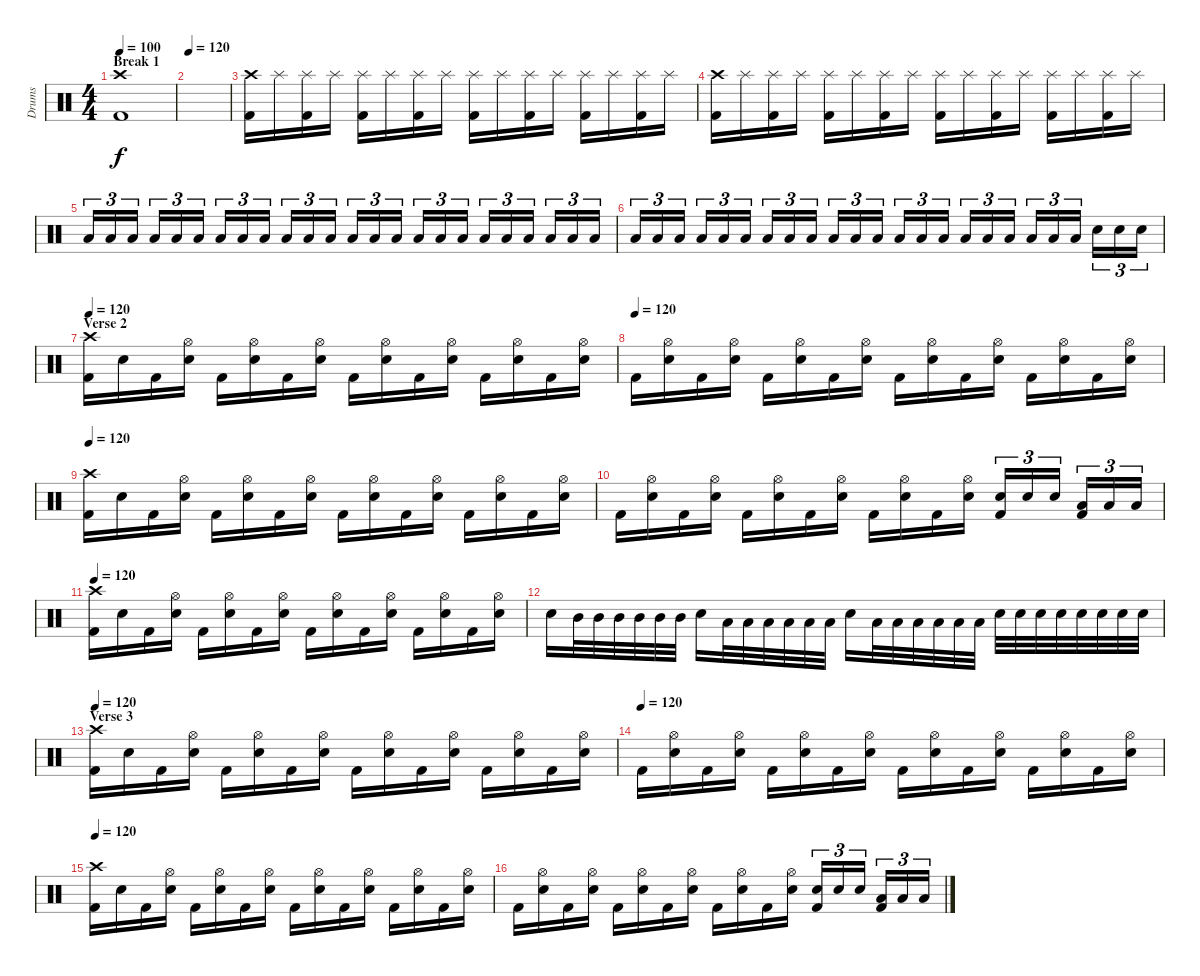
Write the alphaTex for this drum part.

\track ("Drums" "Drums") {instrument percussion}
\staff {score}
\articulation defaults
\ts (4 4)
\section ("" "Break 1")
\tempo 100
\clef neutral
\ks c
("Crash high (hit)" "Kick (hit) 2").1{dy f} |
\tempo 120
|
("Crash high (hit)" "Kick (hit) 2").16 "Splash (hit)".16 ("Splash (hit)" "Kick (hit) 2").16 "Splash (hit)".16 ("Splash (hit)" "Kick (hit) 2").16 "Splash (hit)".16 ("Splash (hit)" "Kick (hit) 2").16 "Splash (hit)".16 ("Splash (hit)" "Kick (hit) 2").16 "Splash (hit)".16 ("Splash (hit)" "Kick (hit) 2").16 "Splash (hit)".16 ("Splash (hit)" "Kick (hit) 2").16 "Splash (hit)".16 ("Splash (hit)" "Kick (hit) 2").16 "Splash (hit)".16 |
("Crash high (hit)" "Kick (hit) 2").16 "Splash (hit)".16 ("Splash (hit)" "Kick (hit) 2").16 "Splash (hit)".16 ("Splash (hit)" "Kick (hit) 2").16 "Splash (hit)".16 ("Splash (hit)" "Kick (hit) 2").16 "Splash (hit)".16 ("Splash (hit)" "Kick (hit) 2").16 "Splash (hit)".16 ("Splash (hit)" "Kick (hit) 2").16 "Splash (hit)".16 ("Splash (hit)" "Kick (hit) 2").16 "Splash (hit)".16 ("Splash (hit)" "Kick (hit) 2").16 "Splash (hit)".16 |
"Low Tom (hit)".16{tu (3 2)} "Low Tom (hit)".16{tu (3 2)} "Low Tom (hit)".16{tu (3 2)} "Low Floor Tom (hit)".16{tu (3 2)} "Low Floor Tom (hit)".16{tu (3 2)} "Low Floor Tom (hit)".16{tu (3 2)} "Low Tom (hit)".16{tu (3 2)} "Low Tom (hit)".16{tu (3 2)} "Low Tom (hit)".16{tu (3 2)} "Low Floor Tom (hit)".16{tu (3 2)} "Low Floor Tom (hit)".16{tu (3 2)} "Low Floor Tom (hit)".16{tu (3 2)} "Low Tom (hit)".16{tu (3 2)} "Low Tom (hit)".16{tu (3 2)} "Low Tom (hit)".16{tu (3 2)} "Low Floor Tom (hit)".16{tu (3 2)} "Low Floor Tom (hit)".16{tu (3 2)} "Low Floor Tom (hit)".16{tu (3 2)} "Low Tom (hit)".16{tu (3 2)} "Low Tom (hit)".16{tu (3 2)} "Low Tom (hit)".16{tu (3 2)} "Low Floor Tom (hit)".16{tu (3 2)} "Low Floor Tom (hit)".16{tu (3 2)} "Low Floor Tom (hit)".16{tu (3 2)} |
"Low Tom (hit)".16{tu (3 2)} "Low Tom (hit)".16{tu (3 2)} "Low Tom (hit)".16{tu (3 2)} "Low Floor Tom (hit)".16{tu (3 2)} "Low Floor Tom (hit)".16{tu (3 2)} "Low Floor Tom (hit)".16{tu (3 2)} "Low Tom (hit)".16{tu (3 2)} "Low Tom (hit)".16{tu (3 2)} "Low Tom (hit)".16{tu (3 2)} "Low Floor Tom (hit)".16{tu (3 2)} "Low Floor Tom (hit)".16{tu (3 2)} "Low Floor Tom (hit)".16{tu (3 2)} "Low Tom (hit)".16{tu (3 2)} "Low Tom (hit)".16{tu (3 2)} "Low Tom (hit)".16{tu (3 2)} "Low Floor Tom (hit)".16{tu (3 2)} "Low Floor Tom (hit)".16{tu (3 2)} "Low Floor Tom (hit)".16{tu (3 2)} "Low Tom (hit)".16{tu (3 2)} "Low Tom (hit)".16{tu (3 2)} "Low Tom (hit)".16{tu (3 2)} "Electric Snare (hit)".16{tu (3 2)} "Electric Snare (hit)".16{tu (3 2)} "Electric Snare (hit)".16{tu (3 2)} |
\section ("" "Verse 2")
\tempo 120
("Crash high (hit)" "Kick (hit) 2").16 "Electric Snare (hit)".16 "Kick (hit) 2".16 ("Hi-Hat (open)" "Electric Snare (hit)").16 "Kick (hit) 2".16 ("Hi-Hat (open)" "Electric Snare (hit)").16 "Kick (hit) 2".16 ("Hi-Hat (open)" "Electric Snare (hit)").16 "Kick (hit) 2".16 ("Hi-Hat (open)" "Electric Snare (hit)").16 "Kick (hit) 2".16 ("Hi-Hat (open)" "Electric Snare (hit)").16 "Kick (hit) 2".16 ("Hi-Hat (open)" "Electric Snare (hit)").16 "Kick (hit) 2".16 ("Hi-Hat (open)" "Electric Snare (hit)").16 |
\tempo (120)
"Kick (hit) 2".16 ("Hi-Hat (open)" "Electric Snare (hit)").16 "Kick (hit) 2".16 ("Hi-Hat (open)" "Electric Snare (hit)").16 "Kick (hit) 2".16 ("Hi-Hat (open)" "Electric Snare (hit)").16 "Kick (hit) 2".16 ("Hi-Hat (open)" "Electric Snare (hit)").16 "Kick (hit) 2".16 ("Hi-Hat (open)" "Electric Snare (hit)").16 "Kick (hit) 2".16 ("Hi-Hat (open)" "Electric Snare (hit)").16 "Kick (hit) 2".16 ("Hi-Hat (open)" "Electric Snare (hit)").16 "Kick (hit) 2".16 ("Hi-Hat (open)" "Electric Snare (hit)").16 |
\tempo 120
("Crash high (hit)" "Kick (hit) 2").16 "Electric Snare (hit)".16 "Kick (hit) 2".16 ("Hi-Hat (open)" "Electric Snare (hit)").16 "Kick (hit) 2".16 ("Hi-Hat (open)" "Electric Snare (hit)").16 "Kick (hit) 2".16 ("Hi-Hat (open)" "Electric Snare (hit)").16 "Kick (hit) 2".16 ("Hi-Hat (open)" "Electric Snare (hit)").16 "Kick (hit) 2".16 ("Hi-Hat (open)" "Electric Snare (hit)").16 "Kick (hit) 2".16 ("Hi-Hat (open)" "Electric Snare (hit)").16 "Kick (hit) 2".16 ("Hi-Hat (open)" "Electric Snare (hit)").16 |
"Kick (hit) 2".16 ("Hi-Hat (open)" "Electric Snare (hit)").16 "Kick (hit) 2".16 ("Hi-Hat (open)" "Electric Snare (hit)").16 "Kick (hit) 2".16 ("Hi-Hat (open)" "Electric Snare (hit)").16 "Kick (hit) 2".16 ("Hi-Hat (open)" "Electric Snare (hit)").16 "Kick (hit) 2".16 ("Hi-Hat (open)" "Electric Snare (hit)").16 "Kick (hit) 2".16 ("Hi-Hat (open)" "Electric Snare (hit)").16 ("Electric Snare (hit)" "Kick (hit) 2").16{tu (3 2)} "Electric Snare (hit)".16{tu (3 2)} "Electric Snare (hit)".16{tu (3 2)} ("Low Tom (hit)" "Kick (hit) 2").16{tu (3 2)} "Low Tom (hit)".16{tu (3 2)} "Low Tom (hit)".16{tu (3 2)} |
\tempo 120
("Crash high (hit)" "Kick (hit) 2").16 "Electric Snare (hit)".16 "Kick (hit) 2".16 ("Hi-Hat (open)" "Electric Snare (hit)").16 "Kick (hit) 2".16 ("Hi-Hat (open)" "Electric Snare (hit)").16 "Kick (hit) 2".16 ("Hi-Hat (open)" "Electric Snare (hit)").16 "Kick (hit) 2".16 ("Hi-Hat (open)" "Electric Snare (hit)").16 "Kick (hit) 2".16 ("Hi-Hat (open)" "Electric Snare (hit)").16 "Kick (hit) 2".16 ("Hi-Hat (open)" "Electric Snare (hit)").16 "Kick (hit) 2".16 ("Hi-Hat (open)" "Electric Snare (hit)").16 |
"Electric Snare (hit)".16 "Mid Tom (hit)".32 "Mid Tom (hit)".32 "Mid Tom (hit)".32 "Mid Tom (hit)".32 "Mid Tom (hit)".32 "Mid Tom (hit)".32 "Electric Snare (hit)".16 "Low Tom (hit)".32 "Low Tom (hit)".32 "Low Tom (hit)".32 "Low Tom (hit)".32 "Low Tom (hit)".32 "Low Tom (hit)".32 "Electric Snare (hit)".16 "Low Floor Tom (hit)".32 "Low Floor Tom (hit)".32 "Low Floor Tom (hit)".32 "Low Floor Tom (hit)".32 "Low Floor Tom (hit)".32 "Low Floor Tom (hit)".32 "Electric Snare (hit)".32 "Electric Snare (hit)".32 "Electric Snare (hit)".32 "Electric Snare (hit)".32 "Electric Snare (hit)".32 "Electric Snare (hit)".32 "Electric Snare (hit)".32 "Electric Snare (hit)".32 |
\section ("" "Verse 3")
\tempo 120
("Crash high (hit)" "Kick (hit) 2").16 "Electric Snare (hit)".16 "Kick (hit) 2".16 ("Hi-Hat (open)" "Electric Snare (hit)").16 "Kick (hit) 2".16 ("Hi-Hat (open)" "Electric Snare (hit)").16 "Kick (hit) 2".16 ("Hi-Hat (open)" "Electric Snare (hit)").16 "Kick (hit) 2".16 ("Hi-Hat (open)" "Electric Snare (hit)").16 "Kick (hit) 2".16 ("Hi-Hat (open)" "Electric Snare (hit)").16 "Kick (hit) 2".16 ("Hi-Hat (open)" "Electric Snare (hit)").16 "Kick (hit) 2".16 ("Hi-Hat (open)" "Electric Snare (hit)").16 |
\tempo (120)
"Kick (hit) 2".16 ("Hi-Hat (open)" "Electric Snare (hit)").16 "Kick (hit) 2".16 ("Hi-Hat (open)" "Electric Snare (hit)").16 "Kick (hit) 2".16 ("Hi-Hat (open)" "Electric Snare (hit)").16 "Kick (hit) 2".16 ("Hi-Hat (open)" "Electric Snare (hit)").16 "Kick (hit) 2".16 ("Hi-Hat (open)" "Electric Snare (hit)").16 "Kick (hit) 2".16 ("Hi-Hat (open)" "Electric Snare (hit)").16 "Kick (hit) 2".16 ("Hi-Hat (open)" "Electric Snare (hit)").16 "Kick (hit) 2".16 ("Hi-Hat (open)" "Electric Snare (hit)").16 |
\tempo 120
("Crash high (hit)" "Kick (hit) 2").16 "Electric Snare (hit)".16 "Kick (hit) 2".16 ("Hi-Hat (open)" "Electric Snare (hit)").16 "Kick (hit) 2".16 ("Hi-Hat (open)" "Electric Snare (hit)").16 "Kick (hit) 2".16 ("Hi-Hat (open)" "Electric Snare (hit)").16 "Kick (hit) 2".16 ("Hi-Hat (open)" "Electric Snare (hit)").16 "Kick (hit) 2".16 ("Hi-Hat (open)" "Electric Snare (hit)").16 "Kick (hit) 2".16 ("Hi-Hat (open)" "Electric Snare (hit)").16 "Kick (hit) 2".16 ("Hi-Hat (open)" "Electric Snare (hit)").16 |
"Kick (hit) 2".16 ("Hi-Hat (open)" "Electric Snare (hit)").16 "Kick (hit) 2".16 ("Hi-Hat (open)" "Electric Snare (hit)").16 "Kick (hit) 2".16 ("Hi-Hat (open)" "Electric Snare (hit)").16 "Kick (hit) 2".16 ("Hi-Hat (open)" "Electric Snare (hit)").16 "Kick (hit) 2".16 ("Hi-Hat (open)" "Electric Snare (hit)").16 "Kick (hit) 2".16 ("Hi-Hat (open)" "Electric Snare (hit)").16 ("Electric Snare (hit)" "Kick (hit) 2").16{tu (3 2)} "Electric Snare (hit)".16{tu (3 2)} "Electric Snare (hit)".16{tu (3 2)} ("Low Tom (hit)" "Kick (hit) 2").16{tu (3 2)} "Low Tom (hit)".16{tu (3 2)} "Low Tom (hit)".16{tu (3 2)}
